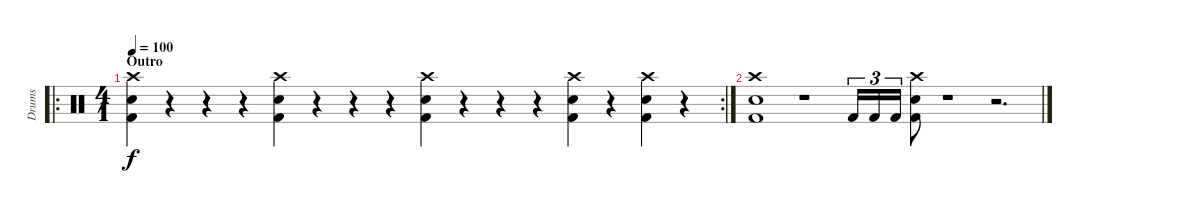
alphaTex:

\track ("Drums" "Drums") {instrument percussion}
\staff {score}
\articulation defaults
\ro
\rc 2
\ts (4 1)
\section ("" "Outro")
\tempo 100
\clef neutral
\ks c
("Crash high (hit)" "Kick (hit) 2" "Electric Snare (hit)").4{dy f} r.4 r.4 r.4 ("Crash high (hit)" "Kick (hit) 2" "Electric Snare (hit)").4 r.4 r.4 r.4 ("Crash high (hit)" "Kick (hit) 2" "Electric Snare (hit)").4 r.4 r.4 r.4 ("Crash high (hit)" "Electric Snare (hit)" "Kick (hit) 2").4 r.4 ("Crash high (hit)" "Electric Snare (hit)" "Kick (hit) 2").4 r.4 |
("Crash high (hit)" "Electric Snare (hit)" "Kick (hit) 2").1 r.1 "Kick (hit) 2".16{tu (3 2)} "Kick (hit) 2".16{tu (3 2)} "Kick (hit) 2".16{tu (3 2)} ("Electric Snare (hit)" "Kick (hit) 2" "Crash high (hit)").8 r.1 r.2{d}
